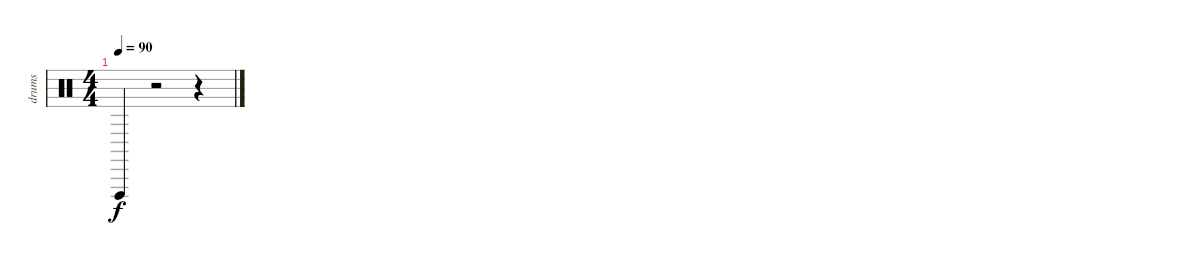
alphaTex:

\track ("drums" "drums") {instrument percussion}
\staff {score}
\articulation defaults
\ts (4 4)
\tempo 90
\clef neutral
\ks c "Vibraslap (hit)".4{dy f}
r.2 r.4
